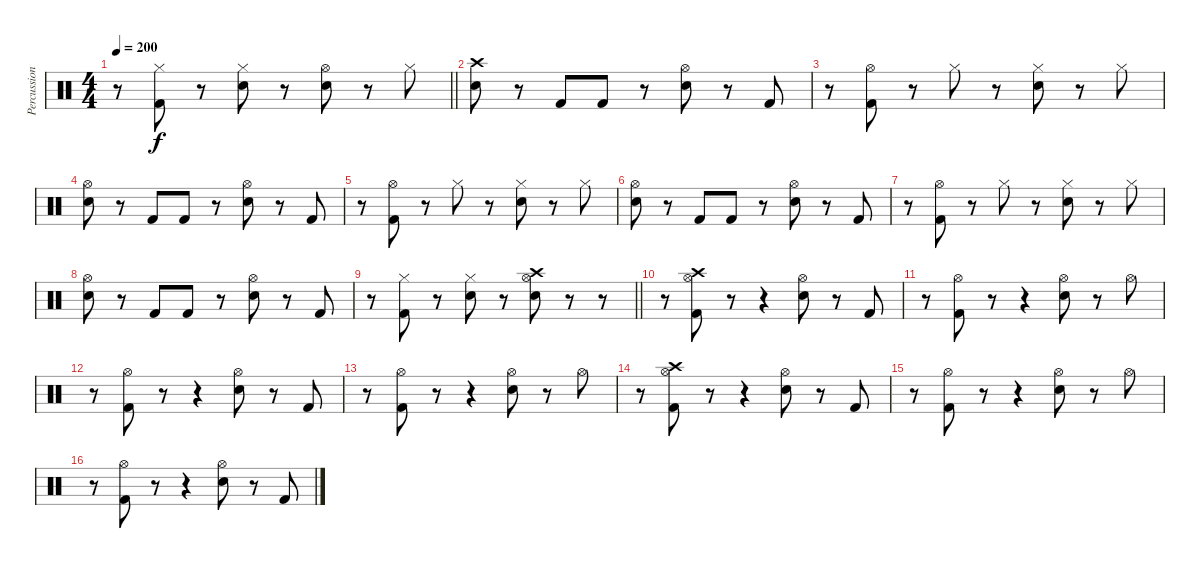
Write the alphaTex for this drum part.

\track ("Percussion" "Percussion") {instrument percussion}
\staff {score}
\articulation defaults
\ts (4 4)
\tempo 200
\clef neutral
\barLineRight lightlight
\ks c
r.8{dy f} ("Kick (hit) 2" "Hi-Hat (closed)").8 r.8 ("Snare (hit) 2" "Hi-Hat (closed)").8 r.8 ("Snare (hit) 2" "Hi-Hat (open)").8 r.8 "Hi-Hat (closed)".8 |
("Snare (hit) 2" "Crash high (hit)").8 r.8 "Kick (hit) 2".8 "Kick (hit) 2".8 r.8 ("Snare (hit) 2" "Hi-Hat (open)").8 r.8 "Kick (hit) 2".8 |
r.8 ("Kick (hit) 2" "Hi-Hat (open)").8 r.8 "Hi-Hat (closed)".8 r.8 ("Snare (hit) 2" "Hi-Hat (closed)").8 r.8 "Hi-Hat (closed)".8 |
("Snare (hit) 2" "Hi-Hat (open)").8 r.8 "Kick (hit) 2".8 "Kick (hit) 2".8 r.8 ("Snare (hit) 2" "Hi-Hat (open)").8 r.8 "Kick (hit) 2".8 |
r.8 ("Kick (hit) 2" "Hi-Hat (open)").8 r.8 "Hi-Hat (closed)".8 r.8 ("Snare (hit) 2" "Hi-Hat (closed)").8 r.8 "Hi-Hat (closed)".8 |
("Snare (hit) 2" "Hi-Hat (open)").8 r.8 "Kick (hit) 2".8 "Kick (hit) 2".8 r.8 ("Snare (hit) 2" "Hi-Hat (open)").8 r.8 "Kick (hit) 2".8 |
r.8 ("Kick (hit) 2" "Hi-Hat (open)").8 r.8 "Hi-Hat (closed)".8 r.8 ("Snare (hit) 2" "Hi-Hat (closed)").8 r.8 "Hi-Hat (closed)".8 |
("Snare (hit) 2" "Hi-Hat (open)").8 r.8 "Kick (hit) 2".8 "Kick (hit) 2".8 r.8 ("Snare (hit) 2" "Hi-Hat (open)").8 r.8 "Kick (hit) 2".8 |
\barLineRight lightlight
r.8 ("Kick (hit) 2" "Hi-Hat (closed)").8 r.8 ("Snare (hit) 2" "Hi-Hat (closed)").8 r.8 ("Snare (hit) 2" "Hi-Hat (open)" "Crash high (hit)").8 r.8 r.8 |
r.8 ("Kick (hit) 2" "Hi-Hat (open)" "Crash high (hit)").8 r.8 r.4 ("Snare (hit) 2" "Hi-Hat (open)").8 r.8 "Kick (hit) 2".8 |
r.8 ("Kick (hit) 2" "Hi-Hat (open)").8 r.8 r.4 ("Snare (hit) 2" "Hi-Hat (open)").8 r.8 "Hi-Hat (open)".8 |
r.8 ("Kick (hit) 2" "Hi-Hat (open)").8 r.8 r.4 ("Snare (hit) 2" "Hi-Hat (open)").8 r.8 "Kick (hit) 2".8 |
r.8 ("Kick (hit) 2" "Hi-Hat (open)").8 r.8 r.4 ("Snare (hit) 2" "Hi-Hat (open)").8 r.8 "Hi-Hat (open)".8 |
r.8 ("Kick (hit) 2" "Hi-Hat (open)" "Crash high (hit)").8 r.8 r.4 ("Snare (hit) 2" "Hi-Hat (open)").8 r.8 "Kick (hit) 2".8 |
r.8 ("Kick (hit) 2" "Hi-Hat (open)").8 r.8 r.4 ("Snare (hit) 2" "Hi-Hat (open)").8 r.8 "Hi-Hat (open)".8 |
r.8 ("Kick (hit) 2" "Hi-Hat (open)").8 r.8 r.4 ("Snare (hit) 2" "Hi-Hat (open)").8 r.8 "Kick (hit) 2".8
